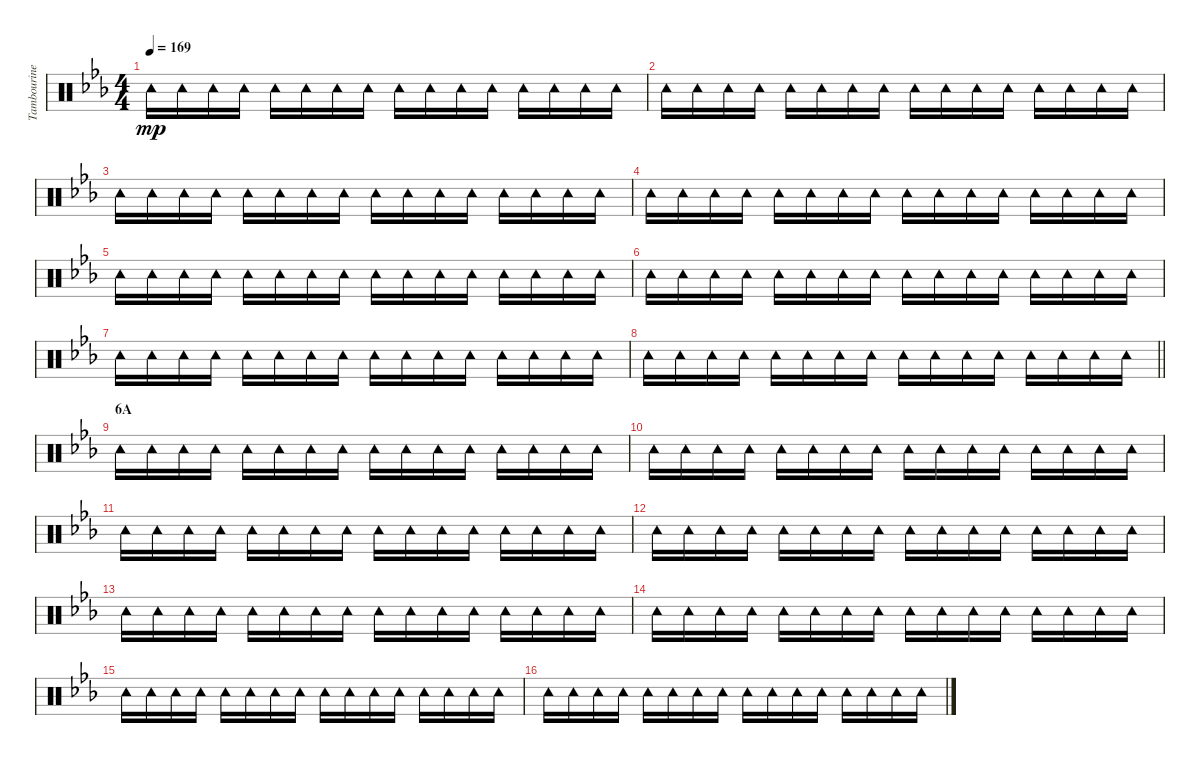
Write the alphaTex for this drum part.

\track ("Tambourine" "Tambourine") {instrument percussion}
\staff {score}
\articulation defaults
\ts (4 4)
\tempo 169
\clef neutral
\ks eb "Tambourine (hit)".16{dy mp} "Tambourine (hit)".16 "Tambourine (hit)".16 "Tambourine (hit)".16 "Tambourine (hit)".16 "Tambourine (hit)".16 "Tambourine (hit)".16 "Tambourine (hit)".16 "Tambourine (hit)".16 "Tambourine (hit)".16 "Tambourine (hit)".16 "Tambourine (hit)".16 "Tambourine (hit)".16 "Tambourine (hit)".16 "Tambourine (hit)".16 "Tambourine (hit)".16
|
"Tambourine (hit)".16 "Tambourine (hit)".16 "Tambourine (hit)".16 "Tambourine (hit)".16 "Tambourine (hit)".16 "Tambourine (hit)".16 "Tambourine (hit)".16 "Tambourine (hit)".16 "Tambourine (hit)".16 "Tambourine (hit)".16 "Tambourine (hit)".16 "Tambourine (hit)".16 "Tambourine (hit)".16 "Tambourine (hit)".16 "Tambourine (hit)".16 "Tambourine (hit)".16 |
"Tambourine (hit)".16 "Tambourine (hit)".16 "Tambourine (hit)".16 "Tambourine (hit)".16 "Tambourine (hit)".16 "Tambourine (hit)".16 "Tambourine (hit)".16 "Tambourine (hit)".16 "Tambourine (hit)".16 "Tambourine (hit)".16 "Tambourine (hit)".16 "Tambourine (hit)".16 "Tambourine (hit)".16 "Tambourine (hit)".16 "Tambourine (hit)".16 "Tambourine (hit)".16 |
"Tambourine (hit)".16 "Tambourine (hit)".16 "Tambourine (hit)".16 "Tambourine (hit)".16 "Tambourine (hit)".16 "Tambourine (hit)".16 "Tambourine (hit)".16 "Tambourine (hit)".16 "Tambourine (hit)".16 "Tambourine (hit)".16 "Tambourine (hit)".16 "Tambourine (hit)".16 "Tambourine (hit)".16 "Tambourine (hit)".16 "Tambourine (hit)".16 "Tambourine (hit)".16 |
"Tambourine (hit)".16 "Tambourine (hit)".16 "Tambourine (hit)".16 "Tambourine (hit)".16 "Tambourine (hit)".16 "Tambourine (hit)".16 "Tambourine (hit)".16 "Tambourine (hit)".16 "Tambourine (hit)".16 "Tambourine (hit)".16 "Tambourine (hit)".16 "Tambourine (hit)".16 "Tambourine (hit)".16 "Tambourine (hit)".16 "Tambourine (hit)".16 "Tambourine (hit)".16 |
"Tambourine (hit)".16 "Tambourine (hit)".16 "Tambourine (hit)".16 "Tambourine (hit)".16 "Tambourine (hit)".16 "Tambourine (hit)".16 "Tambourine (hit)".16 "Tambourine (hit)".16 "Tambourine (hit)".16 "Tambourine (hit)".16 "Tambourine (hit)".16 "Tambourine (hit)".16 "Tambourine (hit)".16 "Tambourine (hit)".16 "Tambourine (hit)".16 "Tambourine (hit)".16 |
"Tambourine (hit)".16 "Tambourine (hit)".16 "Tambourine (hit)".16 "Tambourine (hit)".16 "Tambourine (hit)".16 "Tambourine (hit)".16 "Tambourine (hit)".16 "Tambourine (hit)".16 "Tambourine (hit)".16 "Tambourine (hit)".16 "Tambourine (hit)".16 "Tambourine (hit)".16 "Tambourine (hit)".16 "Tambourine (hit)".16 "Tambourine (hit)".16 "Tambourine (hit)".16 |
\barLineRight lightlight "Tambourine (hit)".16 "Tambourine (hit)".16 "Tambourine (hit)".16 "Tambourine (hit)".16 "Tambourine (hit)".16 "Tambourine (hit)".16 "Tambourine (hit)".16 "Tambourine (hit)".16 "Tambourine (hit)".16 "Tambourine (hit)".16 "Tambourine (hit)".16 "Tambourine (hit)".16 "Tambourine (hit)".16 "Tambourine (hit)".16 "Tambourine (hit)".16 "Tambourine (hit)".16
|
\section ("" "6A")
"Tambourine (hit)".16 "Tambourine (hit)".16 "Tambourine (hit)".16 "Tambourine (hit)".16 "Tambourine (hit)".16 "Tambourine (hit)".16 "Tambourine (hit)".16 "Tambourine (hit)".16 "Tambourine (hit)".16 "Tambourine (hit)".16 "Tambourine (hit)".16 "Tambourine (hit)".16 "Tambourine (hit)".16 "Tambourine (hit)".16 "Tambourine (hit)".16 "Tambourine (hit)".16 |
"Tambourine (hit)".16 "Tambourine (hit)".16 "Tambourine (hit)".16 "Tambourine (hit)".16 "Tambourine (hit)".16 "Tambourine (hit)".16 "Tambourine (hit)".16 "Tambourine (hit)".16 "Tambourine (hit)".16 "Tambourine (hit)".16 "Tambourine (hit)".16 "Tambourine (hit)".16 "Tambourine (hit)".16 "Tambourine (hit)".16 "Tambourine (hit)".16 "Tambourine (hit)".16 |
"Tambourine (hit)".16 "Tambourine (hit)".16 "Tambourine (hit)".16 "Tambourine (hit)".16 "Tambourine (hit)".16 "Tambourine (hit)".16 "Tambourine (hit)".16 "Tambourine (hit)".16 "Tambourine (hit)".16 "Tambourine (hit)".16 "Tambourine (hit)".16 "Tambourine (hit)".16 "Tambourine (hit)".16 "Tambourine (hit)".16 "Tambourine (hit)".16 "Tambourine (hit)".16 |
"Tambourine (hit)".16 "Tambourine (hit)".16 "Tambourine (hit)".16 "Tambourine (hit)".16 "Tambourine (hit)".16 "Tambourine (hit)".16 "Tambourine (hit)".16 "Tambourine (hit)".16 "Tambourine (hit)".16 "Tambourine (hit)".16 "Tambourine (hit)".16 "Tambourine (hit)".16 "Tambourine (hit)".16 "Tambourine (hit)".16 "Tambourine (hit)".16 "Tambourine (hit)".16 |
"Tambourine (hit)".16 "Tambourine (hit)".16 "Tambourine (hit)".16 "Tambourine (hit)".16 "Tambourine (hit)".16 "Tambourine (hit)".16 "Tambourine (hit)".16 "Tambourine (hit)".16 "Tambourine (hit)".16 "Tambourine (hit)".16 "Tambourine (hit)".16 "Tambourine (hit)".16 "Tambourine (hit)".16 "Tambourine (hit)".16 "Tambourine (hit)".16 "Tambourine (hit)".16 |
"Tambourine (hit)".16 "Tambourine (hit)".16 "Tambourine (hit)".16 "Tambourine (hit)".16 "Tambourine (hit)".16 "Tambourine (hit)".16 "Tambourine (hit)".16 "Tambourine (hit)".16 "Tambourine (hit)".16 "Tambourine (hit)".16 "Tambourine (hit)".16 "Tambourine (hit)".16 "Tambourine (hit)".16 "Tambourine (hit)".16 "Tambourine (hit)".16 "Tambourine (hit)".16 |
"Tambourine (hit)".16 "Tambourine (hit)".16 "Tambourine (hit)".16 "Tambourine (hit)".16 "Tambourine (hit)".16 "Tambourine (hit)".16 "Tambourine (hit)".16 "Tambourine (hit)".16 "Tambourine (hit)".16 "Tambourine (hit)".16 "Tambourine (hit)".16 "Tambourine (hit)".16 "Tambourine (hit)".16 "Tambourine (hit)".16 "Tambourine (hit)".16 "Tambourine (hit)".16 |
"Tambourine (hit)".16 "Tambourine (hit)".16 "Tambourine (hit)".16 "Tambourine (hit)".16 "Tambourine (hit)".16 "Tambourine (hit)".16 "Tambourine (hit)".16 "Tambourine (hit)".16 "Tambourine (hit)".16 "Tambourine (hit)".16 "Tambourine (hit)".16 "Tambourine (hit)".16 "Tambourine (hit)".16 "Tambourine (hit)".16 "Tambourine (hit)".16 "Tambourine (hit)".16
